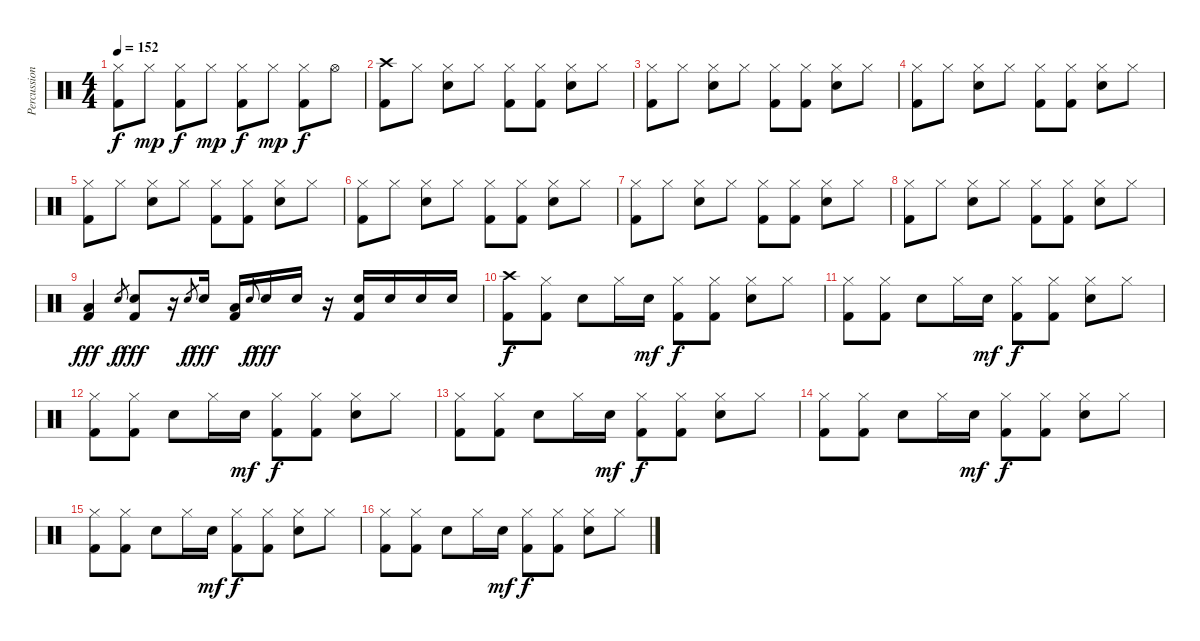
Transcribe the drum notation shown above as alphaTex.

\track ("Percussion" "Percussion") {instrument percussion}
\staff {score}
\articulation defaults
\ts (4 4)
\tempo 152
\clef neutral
\ks c
("Kick (hit) 2" "Hi-Hat (closed)").8{dy f} "Hi-Hat (closed)".8{dy mp} ("Kick (hit) 2" "Hi-Hat (closed)").8{dy f} "Hi-Hat (closed)".8{dy mp} ("Kick (hit) 2" "Hi-Hat (closed)").8{dy f} "Hi-Hat (closed)".8{dy mp} ("Kick (hit) 2" "Hi-Hat (closed)").8{dy f} "Hi-Hat (open)".8 |
("Kick (hit) 2" "Crash high (hit)").8 "Hi-Hat (closed)".8 ("Electric Snare (hit)" "Hi-Hat (closed)").8 "Hi-Hat (closed)".8 ("Kick (hit) 2" "Hi-Hat (closed)").8 ("Kick (hit) 2" "Hi-Hat (closed)").8 ("Electric Snare (hit)" "Hi-Hat (closed)").8 "Hi-Hat (closed)".8 |
("Kick (hit) 2" "Hi-Hat (closed)").8 "Hi-Hat (closed)".8 ("Electric Snare (hit)" "Hi-Hat (closed)").8 "Hi-Hat (closed)".8 ("Kick (hit) 2" "Hi-Hat (closed)").8 ("Kick (hit) 2" "Hi-Hat (closed)").8 ("Electric Snare (hit)" "Hi-Hat (closed)").8 "Hi-Hat (closed)".8 |
("Kick (hit) 2" "Hi-Hat (closed)").8 "Hi-Hat (closed)".8 ("Electric Snare (hit)" "Hi-Hat (closed)").8 "Hi-Hat (closed)".8 ("Kick (hit) 2" "Hi-Hat (closed)").8 ("Kick (hit) 2" "Hi-Hat (closed)").8 ("Electric Snare (hit)" "Hi-Hat (closed)").8 "Hi-Hat (closed)".8 |
("Kick (hit) 2" "Hi-Hat (closed)").8 "Hi-Hat (closed)".8 ("Electric Snare (hit)" "Hi-Hat (closed)").8 "Hi-Hat (closed)".8 ("Kick (hit) 2" "Hi-Hat (closed)").8 ("Kick (hit) 2" "Hi-Hat (closed)").8 ("Electric Snare (hit)" "Hi-Hat (closed)").8 "Hi-Hat (closed)".8 |
("Kick (hit) 2" "Hi-Hat (closed)").8 "Hi-Hat (closed)".8 ("Electric Snare (hit)" "Hi-Hat (closed)").8 "Hi-Hat (closed)".8 ("Kick (hit) 2" "Hi-Hat (closed)").8 ("Kick (hit) 2" "Hi-Hat (closed)").8 ("Electric Snare (hit)" "Hi-Hat (closed)").8 "Hi-Hat (closed)".8 |
("Kick (hit) 2" "Hi-Hat (closed)").8 "Hi-Hat (closed)".8 ("Electric Snare (hit)" "Hi-Hat (closed)").8 "Hi-Hat (closed)".8 ("Kick (hit) 2" "Hi-Hat (closed)").8 ("Kick (hit) 2" "Hi-Hat (closed)").8 ("Electric Snare (hit)" "Hi-Hat (closed)").8 "Hi-Hat (closed)".8 |
("Kick (hit) 2" "Hi-Hat (closed)").8 "Hi-Hat (closed)".8 ("Electric Snare (hit)" "Hi-Hat (closed)").8 "Hi-Hat (closed)".8 ("Kick (hit) 2" "Hi-Hat (closed)").8 ("Kick (hit) 2" "Hi-Hat (closed)").8 ("Electric Snare (hit)" "Hi-Hat (closed)").8 "Hi-Hat (closed)".8 |
("Kick (hit) 2" "Low Tom (hit)").4{dy fff} "Snare (hit) 2".8{gr dy f} ("Snare (hit) 2" "Kick (hit) 2").8{dy fff} r.16 "Snare (hit) 2".8{gr dy f} "Snare (hit) 2".16{dy fff} ("Low Floor Tom (hit)" "Kick (hit) 2").16 "Snare (hit) 2".8{gr onbeat dy f} "Snare (hit) 2".16{dy fff} "Snare (hit) 2".16 r.16 ("Snare (hit) 2" "Kick (hit) 2").16 "Snare (hit) 2".16 "Snare (hit) 2".16 "Snare (hit) 2".16 |
("Kick (hit) 2" "Crash high (hit)").8{dy f} ("Kick (hit) 2" "Hi-Hat (closed)").8 "Electric Snare (hit)".8 "Hi-Hat (closed)".16 "Electric Snare (hit)".16{dy mf} ("Kick (hit) 2" "Hi-Hat (closed)").8{dy f} ("Kick (hit) 2" "Hi-Hat (closed)").8 ("Electric Snare (hit)" "Hi-Hat (closed)").8 "Hi-Hat (closed)".8 |
("Kick (hit) 2" "Hi-Hat (closed)").8 ("Kick (hit) 2" "Hi-Hat (closed)").8 "Electric Snare (hit)".8 "Hi-Hat (closed)".16 "Electric Snare (hit)".16{dy mf} ("Kick (hit) 2" "Hi-Hat (closed)").8{dy f} ("Kick (hit) 2" "Hi-Hat (closed)").8 ("Electric Snare (hit)" "Hi-Hat (closed)").8 "Hi-Hat (closed)".8 |
("Kick (hit) 2" "Hi-Hat (closed)").8 ("Kick (hit) 2" "Hi-Hat (closed)").8 "Electric Snare (hit)".8 "Hi-Hat (closed)".16 "Electric Snare (hit)".16{dy mf} ("Kick (hit) 2" "Hi-Hat (closed)").8{dy f} ("Kick (hit) 2" "Hi-Hat (closed)").8 ("Electric Snare (hit)" "Hi-Hat (closed)").8 "Hi-Hat (closed)".8 |
("Kick (hit) 2" "Hi-Hat (closed)").8 ("Kick (hit) 2" "Hi-Hat (closed)").8 "Electric Snare (hit)".8 "Hi-Hat (closed)".16 "Electric Snare (hit)".16{dy mf} ("Kick (hit) 2" "Hi-Hat (closed)").8{dy f} ("Kick (hit) 2" "Hi-Hat (closed)").8 ("Electric Snare (hit)" "Hi-Hat (closed)").8 "Hi-Hat (closed)".8 |
("Kick (hit) 2" "Hi-Hat (closed)").8 ("Kick (hit) 2" "Hi-Hat (closed)").8 "Electric Snare (hit)".8 "Hi-Hat (closed)".16 "Electric Snare (hit)".16{dy mf} ("Kick (hit) 2" "Hi-Hat (closed)").8{dy f} ("Kick (hit) 2" "Hi-Hat (closed)").8 ("Electric Snare (hit)" "Hi-Hat (closed)").8 "Hi-Hat (closed)".8 |
("Kick (hit) 2" "Hi-Hat (closed)").8 ("Kick (hit) 2" "Hi-Hat (closed)").8 "Electric Snare (hit)".8 "Hi-Hat (closed)".16 "Electric Snare (hit)".16{dy mf} ("Kick (hit) 2" "Hi-Hat (closed)").8{dy f} ("Kick (hit) 2" "Hi-Hat (closed)").8 ("Electric Snare (hit)" "Hi-Hat (closed)").8 "Hi-Hat (closed)".8 |
("Kick (hit) 2" "Hi-Hat (closed)").8 ("Kick (hit) 2" "Hi-Hat (closed)").8 "Electric Snare (hit)".8 "Hi-Hat (closed)".16 "Electric Snare (hit)".16{dy mf} ("Kick (hit) 2" "Hi-Hat (closed)").8{dy f} ("Kick (hit) 2" "Hi-Hat (closed)").8 ("Electric Snare (hit)" "Hi-Hat (closed)").8 "Hi-Hat (closed)".8
